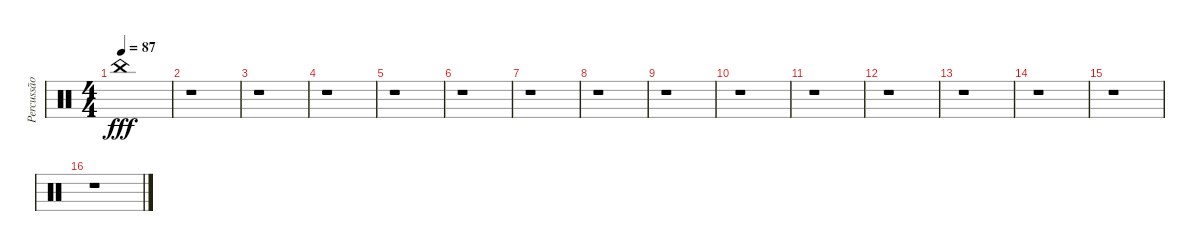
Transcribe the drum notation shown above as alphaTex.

\track ("Percussão" "Percussão") {instrument percussion}
\staff {score}
\articulation defaults
\ts (4 4)
\tempo 87
\clef neutral
\ks c "China (hit)".1{dy fff}
|
r.1 |
r.1 |
r.1 |
r.1 |
r.1 |
r.1 |
r.1 |
r.1 |
r.1 |
r.1 |
r.1 |
r.1 |
r.1 |
r.1 |
r.1
